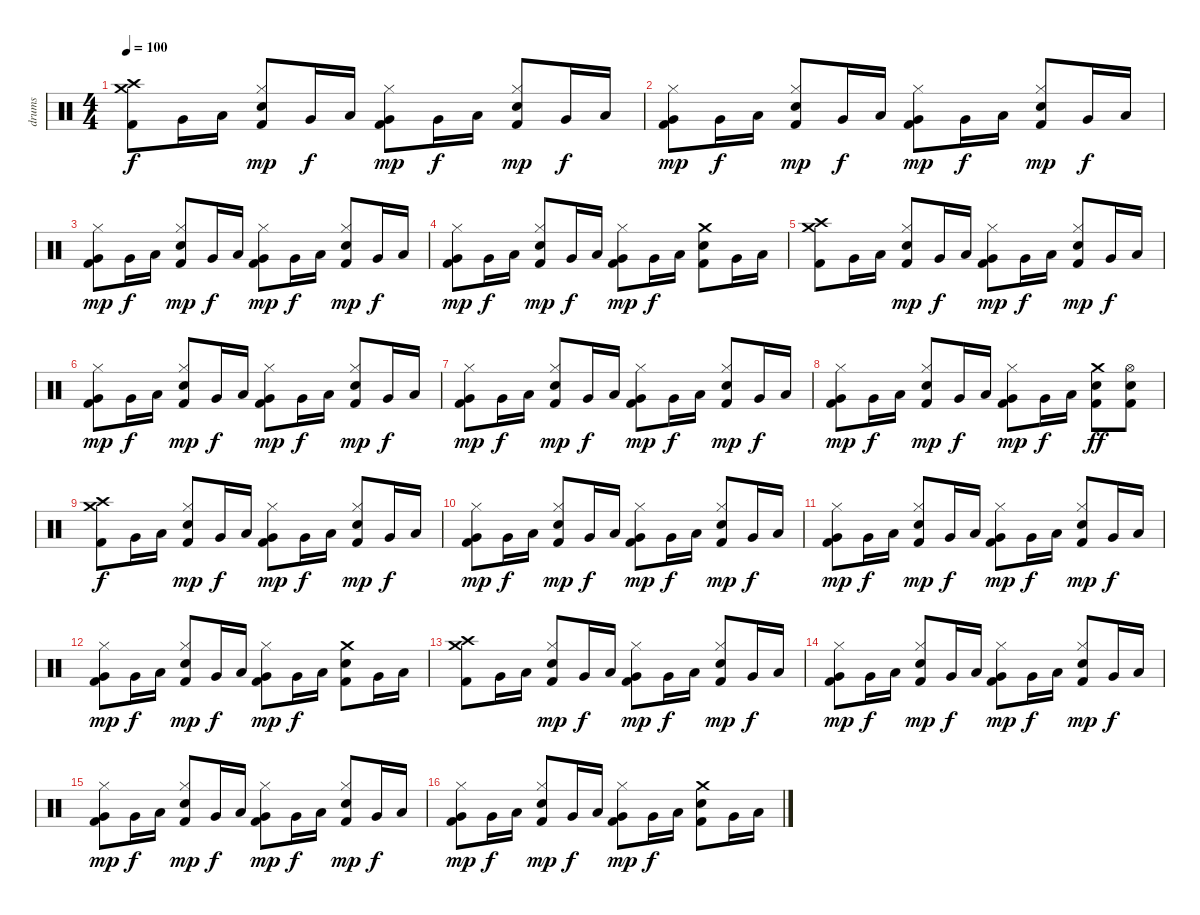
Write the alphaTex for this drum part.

\track ("drums" "drums") {instrument percussion}
\staff {score}
\articulation defaults
\ts (4 4)
\tempo 100
\clef neutral
\ks c
("Crash high (hit)" "Crash medium (hit)" "Kick (hit) 2").8{dy f} "Very Low Tom (hit)".16 "Low Floor Tom (hit)".16 ("Hi-Hat (closed)" "Electric Snare (hit)" "Kick (hit) 2").8{dy mp} "Very Low Tom (hit)".16{dy f} "Low Floor Tom (hit)".16 ("Hi-Hat (closed)" "Very Low Tom (hit)" "Kick (hit) 2").8{dy mp} "Very Low Tom (hit)".16{dy f} "Low Floor Tom (hit)".16 ("Hi-Hat (closed)" "Electric Snare (hit)" "Kick (hit) 2").8{dy mp} "Very Low Tom (hit)".16{dy f} "Low Floor Tom (hit)".16 |
("Hi-Hat (closed)" "Very Low Tom (hit)" "Kick (hit) 2").8{dy mp} "Very Low Tom (hit)".16{dy f} "Low Floor Tom (hit)".16 ("Hi-Hat (closed)" "Electric Snare (hit)" "Kick (hit) 2").8{dy mp} "Very Low Tom (hit)".16{dy f} "Low Floor Tom (hit)".16 ("Hi-Hat (closed)" "Very Low Tom (hit)" "Kick (hit) 2").8{dy mp} "Very Low Tom (hit)".16{dy f} "Low Floor Tom (hit)".16 ("Hi-Hat (closed)" "Electric Snare (hit)" "Kick (hit) 2").8{dy mp} "Very Low Tom (hit)".16{dy f} "Low Floor Tom (hit)".16 |
("Hi-Hat (closed)" "Very Low Tom (hit)" "Kick (hit) 2").8{dy mp} "Very Low Tom (hit)".16{dy f} "Low Floor Tom (hit)".16 ("Hi-Hat (closed)" "Electric Snare (hit)" "Kick (hit) 2").8{dy mp} "Very Low Tom (hit)".16{dy f} "Low Floor Tom (hit)".16 ("Hi-Hat (closed)" "Very Low Tom (hit)" "Kick (hit) 2").8{dy mp} "Very Low Tom (hit)".16{dy f} "Low Floor Tom (hit)".16 ("Hi-Hat (closed)" "Electric Snare (hit)" "Kick (hit) 2").8{dy mp} "Very Low Tom (hit)".16{dy f} "Low Floor Tom (hit)".16 |
("Hi-Hat (closed)" "Very Low Tom (hit)" "Kick (hit) 2").8{dy mp} "Very Low Tom (hit)".16{dy f} "Low Floor Tom (hit)".16 ("Hi-Hat (closed)" "Electric Snare (hit)" "Kick (hit) 2").8{dy mp} "Very Low Tom (hit)".16{dy f} "Low Floor Tom (hit)".16 ("Hi-Hat (closed)" "Very Low Tom (hit)" "Kick (hit) 2").8{dy mp} "Very Low Tom (hit)".16{dy f} "Low Floor Tom (hit)".16 ("Crash medium (hit)" "Electric Snare (hit)" "Kick (hit) 2").8 "Very Low Tom (hit)".16 "Low Floor Tom (hit)".16 |
("Crash high (hit)" "Crash medium (hit)" "Kick (hit) 2").8 "Very Low Tom (hit)".16 "Low Floor Tom (hit)".16 ("Hi-Hat (closed)" "Electric Snare (hit)" "Kick (hit) 2").8{dy mp} "Very Low Tom (hit)".16{dy f} "Low Floor Tom (hit)".16 ("Hi-Hat (closed)" "Very Low Tom (hit)" "Kick (hit) 2").8{dy mp} "Very Low Tom (hit)".16{dy f} "Low Floor Tom (hit)".16 ("Hi-Hat (closed)" "Electric Snare (hit)" "Kick (hit) 2").8{dy mp} "Very Low Tom (hit)".16{dy f} "Low Floor Tom (hit)".16 |
("Hi-Hat (closed)" "Very Low Tom (hit)" "Kick (hit) 2").8{dy mp} "Very Low Tom (hit)".16{dy f} "Low Floor Tom (hit)".16 ("Hi-Hat (closed)" "Electric Snare (hit)" "Kick (hit) 2").8{dy mp} "Very Low Tom (hit)".16{dy f} "Low Floor Tom (hit)".16 ("Hi-Hat (closed)" "Very Low Tom (hit)" "Kick (hit) 2").8{dy mp} "Very Low Tom (hit)".16{dy f} "Low Floor Tom (hit)".16 ("Hi-Hat (closed)" "Electric Snare (hit)" "Kick (hit) 2").8{dy mp} "Very Low Tom (hit)".16{dy f} "Low Floor Tom (hit)".16 |
("Hi-Hat (closed)" "Very Low Tom (hit)" "Kick (hit) 2").8{dy mp} "Very Low Tom (hit)".16{dy f} "Low Floor Tom (hit)".16 ("Hi-Hat (closed)" "Electric Snare (hit)" "Kick (hit) 2").8{dy mp} "Very Low Tom (hit)".16{dy f} "Low Floor Tom (hit)".16 ("Hi-Hat (closed)" "Very Low Tom (hit)" "Kick (hit) 2").8{dy mp} "Very Low Tom (hit)".16{dy f} "Low Floor Tom (hit)".16 ("Hi-Hat (closed)" "Electric Snare (hit)" "Kick (hit) 2").8{dy mp} "Very Low Tom (hit)".16{dy f} "Low Floor Tom (hit)".16 |
("Hi-Hat (closed)" "Very Low Tom (hit)" "Kick (hit) 2").8{dy mp} "Very Low Tom (hit)".16{dy f} "Low Floor Tom (hit)".16 ("Hi-Hat (closed)" "Electric Snare (hit)" "Kick (hit) 2").8{dy mp} "Very Low Tom (hit)".16{dy f} "Low Floor Tom (hit)".16 ("Hi-Hat (closed)" "Very Low Tom (hit)" "Kick (hit) 2").8{dy mp} "Very Low Tom (hit)".16{dy f} "Low Floor Tom (hit)".16 ("Crash medium (hit)" "Electric Snare (hit)" "Kick (hit) 2").8{dy ff} ("Hi-Hat (open)" "Electric Snare (hit)" "Kick (hit) 2").8 |
("Crash high (hit)" "Crash medium (hit)" "Kick (hit) 2").8{dy f} "Very Low Tom (hit)".16 "Low Floor Tom (hit)".16 ("Hi-Hat (closed)" "Electric Snare (hit)" "Kick (hit) 2").8{dy mp} "Very Low Tom (hit)".16{dy f} "Low Floor Tom (hit)".16 ("Hi-Hat (closed)" "Very Low Tom (hit)" "Kick (hit) 2").8{dy mp} "Very Low Tom (hit)".16{dy f} "Low Floor Tom (hit)".16 ("Hi-Hat (closed)" "Electric Snare (hit)" "Kick (hit) 2").8{dy mp} "Very Low Tom (hit)".16{dy f} "Low Floor Tom (hit)".16 |
("Hi-Hat (closed)" "Very Low Tom (hit)" "Kick (hit) 2").8{dy mp} "Very Low Tom (hit)".16{dy f} "Low Floor Tom (hit)".16 ("Hi-Hat (closed)" "Electric Snare (hit)" "Kick (hit) 2").8{dy mp} "Very Low Tom (hit)".16{dy f} "Low Floor Tom (hit)".16 ("Hi-Hat (closed)" "Very Low Tom (hit)" "Kick (hit) 2").8{dy mp} "Very Low Tom (hit)".16{dy f} "Low Floor Tom (hit)".16 ("Hi-Hat (closed)" "Electric Snare (hit)" "Kick (hit) 2").8{dy mp} "Very Low Tom (hit)".16{dy f} "Low Floor Tom (hit)".16 |
("Hi-Hat (closed)" "Very Low Tom (hit)" "Kick (hit) 2").8{dy mp} "Very Low Tom (hit)".16{dy f} "Low Floor Tom (hit)".16 ("Hi-Hat (closed)" "Electric Snare (hit)" "Kick (hit) 2").8{dy mp} "Very Low Tom (hit)".16{dy f} "Low Floor Tom (hit)".16 ("Hi-Hat (closed)" "Very Low Tom (hit)" "Kick (hit) 2").8{dy mp} "Very Low Tom (hit)".16{dy f} "Low Floor Tom (hit)".16 ("Hi-Hat (closed)" "Electric Snare (hit)" "Kick (hit) 2").8{dy mp} "Very Low Tom (hit)".16{dy f} "Low Floor Tom (hit)".16 |
("Hi-Hat (closed)" "Very Low Tom (hit)" "Kick (hit) 2").8{dy mp} "Very Low Tom (hit)".16{dy f} "Low Floor Tom (hit)".16 ("Hi-Hat (closed)" "Electric Snare (hit)" "Kick (hit) 2").8{dy mp} "Very Low Tom (hit)".16{dy f} "Low Floor Tom (hit)".16 ("Hi-Hat (closed)" "Very Low Tom (hit)" "Kick (hit) 2").8{dy mp} "Very Low Tom (hit)".16{dy f} "Low Floor Tom (hit)".16 ("Crash medium (hit)" "Electric Snare (hit)" "Kick (hit) 2").8 "Very Low Tom (hit)".16 "Low Floor Tom (hit)".16 |
("Crash high (hit)" "Crash medium (hit)" "Kick (hit) 2").8 "Very Low Tom (hit)".16 "Low Floor Tom (hit)".16 ("Hi-Hat (closed)" "Electric Snare (hit)" "Kick (hit) 2").8{dy mp} "Very Low Tom (hit)".16{dy f} "Low Floor Tom (hit)".16 ("Hi-Hat (closed)" "Very Low Tom (hit)" "Kick (hit) 2").8{dy mp} "Very Low Tom (hit)".16{dy f} "Low Floor Tom (hit)".16 ("Hi-Hat (closed)" "Electric Snare (hit)" "Kick (hit) 2").8{dy mp} "Very Low Tom (hit)".16{dy f} "Low Floor Tom (hit)".16 |
("Hi-Hat (closed)" "Very Low Tom (hit)" "Kick (hit) 2").8{dy mp} "Very Low Tom (hit)".16{dy f} "Low Floor Tom (hit)".16 ("Hi-Hat (closed)" "Electric Snare (hit)" "Kick (hit) 2").8{dy mp} "Very Low Tom (hit)".16{dy f} "Low Floor Tom (hit)".16 ("Hi-Hat (closed)" "Very Low Tom (hit)" "Kick (hit) 2").8{dy mp} "Very Low Tom (hit)".16{dy f} "Low Floor Tom (hit)".16 ("Hi-Hat (closed)" "Electric Snare (hit)" "Kick (hit) 2").8{dy mp} "Very Low Tom (hit)".16{dy f} "Low Floor Tom (hit)".16 |
("Hi-Hat (closed)" "Very Low Tom (hit)" "Kick (hit) 2").8{dy mp} "Very Low Tom (hit)".16{dy f} "Low Floor Tom (hit)".16 ("Hi-Hat (closed)" "Electric Snare (hit)" "Kick (hit) 2").8{dy mp} "Very Low Tom (hit)".16{dy f} "Low Floor Tom (hit)".16 ("Hi-Hat (closed)" "Very Low Tom (hit)" "Kick (hit) 2").8{dy mp} "Very Low Tom (hit)".16{dy f} "Low Floor Tom (hit)".16 ("Hi-Hat (closed)" "Electric Snare (hit)" "Kick (hit) 2").8{dy mp} "Very Low Tom (hit)".16{dy f} "Low Floor Tom (hit)".16 |
("Hi-Hat (closed)" "Very Low Tom (hit)" "Kick (hit) 2").8{dy mp} "Very Low Tom (hit)".16{dy f} "Low Floor Tom (hit)".16 ("Hi-Hat (closed)" "Electric Snare (hit)" "Kick (hit) 2").8{dy mp} "Very Low Tom (hit)".16{dy f} "Low Floor Tom (hit)".16 ("Hi-Hat (closed)" "Very Low Tom (hit)" "Kick (hit) 2").8{dy mp} "Very Low Tom (hit)".16{dy f} "Low Floor Tom (hit)".16 ("Crash medium (hit)" "Electric Snare (hit)" "Kick (hit) 2").8 "Very Low Tom (hit)".16 "Low Floor Tom (hit)".16
